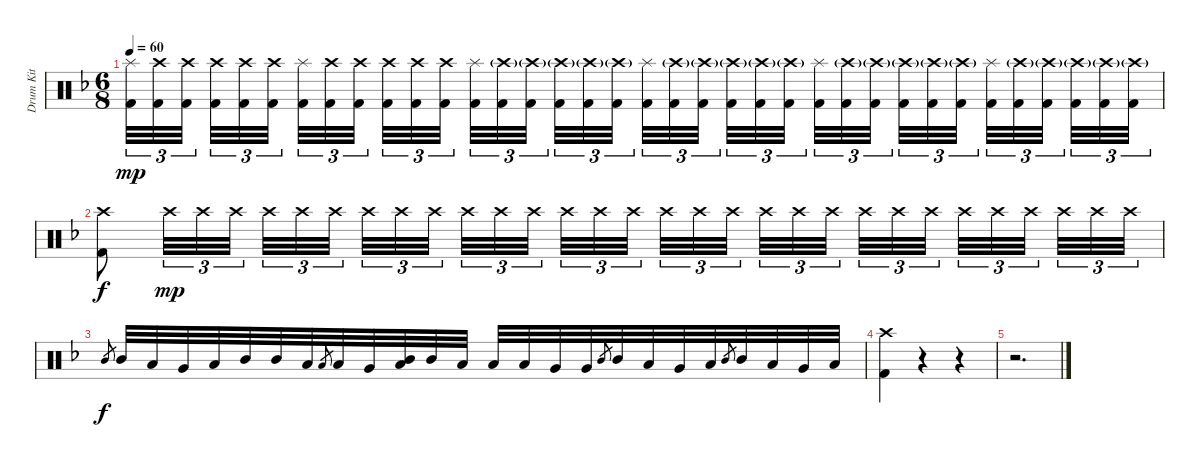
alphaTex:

\track ("Drum Kit  (acous.)" "Drum Kit  ") {instrument percussion}
\staff {score}
\articulation defaults
\ts (6 8)
\tempo 60
\clef neutral
\ks dminor
("Splash (hit)" "Kick (hit) 2").32{tu (3 2) dy mp} ("Crash high (hit)" "Kick (hit) 2").32{tu (3 2)} ("Crash high (hit)" "Kick (hit) 2").32{tu (3 2) beam splitsecondary} ("Crash high (hit)" "Kick (hit) 2").32{tu (3 2)} ("Crash high (hit)" "Kick (hit) 2").32{tu (3 2)} ("Crash high (hit)" "Kick (hit) 2").32{tu (3 2) beam splitsecondary} ("Splash (hit)" "Kick (hit) 2").32{tu (3 2)} ("Crash high (hit)" "Kick (hit) 2").32{tu (3 2)} ("Crash high (hit)" "Kick (hit) 2").32{tu (3 2) beam splitsecondary} ("Crash high (hit)" "Kick (hit) 2").32{tu (3 2)} ("Crash high (hit)" "Kick (hit) 2").32{tu (3 2)} ("Crash high (hit)" "Kick (hit) 2").32{tu (3 2) beam splitsecondary} ("Splash (hit)" "Kick (hit) 2").32{tu (3 2)} ("Crash high (hit)"{g} "Kick (hit) 2").32{tu (3 2)} ("Crash high (hit)"{g} "Kick (hit) 2").32{tu (3 2) beam splitsecondary} ("Crash high (hit)"{g} "Kick (hit) 2").32{tu (3 2)} ("Crash high (hit)"{g} "Kick (hit) 2").32{tu (3 2)} ("Crash high (hit)"{g} "Kick (hit) 2").32{tu (3 2)} ("Splash (hit)" "Kick (hit) 2").32{tu (3 2)} ("Crash high (hit)"{g} "Kick (hit) 2").32{tu (3 2)} ("Crash high (hit)"{g} "Kick (hit) 2").32{tu (3 2) beam splitsecondary} ("Crash high (hit)"{g} "Kick (hit) 2").32{tu (3 2)} ("Crash high (hit)"{g} "Kick (hit) 2").32{tu (3 2)} ("Crash high (hit)"{g} "Kick (hit) 2").32{tu (3 2) beam splitsecondary} ("Splash (hit)" "Kick (hit) 2").32{tu (3 2)} ("Crash high (hit)"{g} "Kick (hit) 2").32{tu (3 2)} ("Crash high (hit)"{g} "Kick (hit) 2").32{tu (3 2) beam splitsecondary} ("Crash high (hit)"{g} "Kick (hit) 2").32{tu (3 2)} ("Crash high (hit)"{g} "Kick (hit) 2").32{tu (3 2)} ("Crash high (hit)"{g} "Kick (hit) 2").32{tu (3 2) beam splitsecondary} ("Splash (hit)" "Kick (hit) 2").32{tu (3 2)} ("Crash high (hit)"{g} "Kick (hit) 2").32{tu (3 2)} ("Crash high (hit)"{g} "Kick (hit) 2").32{tu (3 2) beam splitsecondary} ("Crash high (hit)"{g} "Kick (hit) 2").32{tu (3 2)} ("Crash high (hit)"{g} "Kick (hit) 2").32{tu (3 2)} ("Crash high (hit)"{g} "Kick (hit) 2").32{tu (3 2)} |
("Crash high (hit)" "Kick (hit) 2").8{dy f} "Crash high (hit)".32{tu (3 2) dy mp} "Crash high (hit)".32{tu (3 2)} "Crash high (hit)".32{tu (3 2) beam splitsecondary} "Crash high (hit)".32{tu (3 2)} "Crash high (hit)".32{tu (3 2)} "Crash high (hit)".32{tu (3 2) beam splitsecondary} "Crash high (hit)".32{tu (3 2)} "Crash high (hit)".32{tu (3 2)} "Crash high (hit)".32{tu (3 2) beam splitsecondary} "Crash high (hit)".32{tu (3 2)} "Crash high (hit)".32{tu (3 2)} "Crash high (hit)".32{tu (3 2)} "Crash high (hit)".32{tu (3 2)} "Crash high (hit)".32{tu (3 2)} "Crash high (hit)".32{tu (3 2) beam splitsecondary} "Crash high (hit)".32{tu (3 2)} "Crash high (hit)".32{tu (3 2)} "Crash high (hit)".32{tu (3 2) beam splitsecondary} "Crash high (hit)".32{tu (3 2)} "Crash high (hit)".32{tu (3 2)} "Crash high (hit)".32{tu (3 2) beam splitsecondary} "Crash high (hit)".32{tu (3 2)} "Crash high (hit)".32{tu (3 2)} "Crash high (hit)".32{tu (3 2) beam splitsecondary} "Crash high (hit)".32{tu (3 2)} "Crash high (hit)".32{tu (3 2)} "Crash high (hit)".32{tu (3 2) beam splitsecondary} "Crash high (hit)".32{tu (3 2)} "Crash high (hit)".32{tu (3 2)} "Crash high (hit)".32{tu (3 2)} |
"Mid Tom (hit)".8{gr dy f} "Mid Tom (hit)".32 "Low Tom (hit)".32 "Very Low Tom (hit)".32 "Low Floor Tom (hit)".32 "Mid Tom (hit)".32 "Mid Tom (hit)".32 "Low Tom (hit)".32 "Low Tom (hit)".8{gr} "Low Tom (hit)".32 "Very Low Tom (hit)".32 ("Mid Tom (hit)" "Low Floor Tom (hit)").32 "Mid Tom (hit)".32 "Low Tom (hit)".32 "Low Tom (hit)".32 "Low Tom (hit)".32 "Very Low Tom (hit)".32 "Very Low Tom (hit)".32 "Mid Tom (hit)".8{gr} "Mid Tom (hit)".32 "Low Tom (hit)".32 "Very Low Tom (hit)".32 "Low Floor Tom (hit)".32 "Mid Tom (hit)".8{gr} "Mid Tom (hit)".32 "Low Tom (hit)".32 "Very Low Tom (hit)".32 "Low Floor Tom (hit)".32 |
("Crash high (hit)" "Kick (hit) 2").4 r.4 r.4 |
r.2{d}
